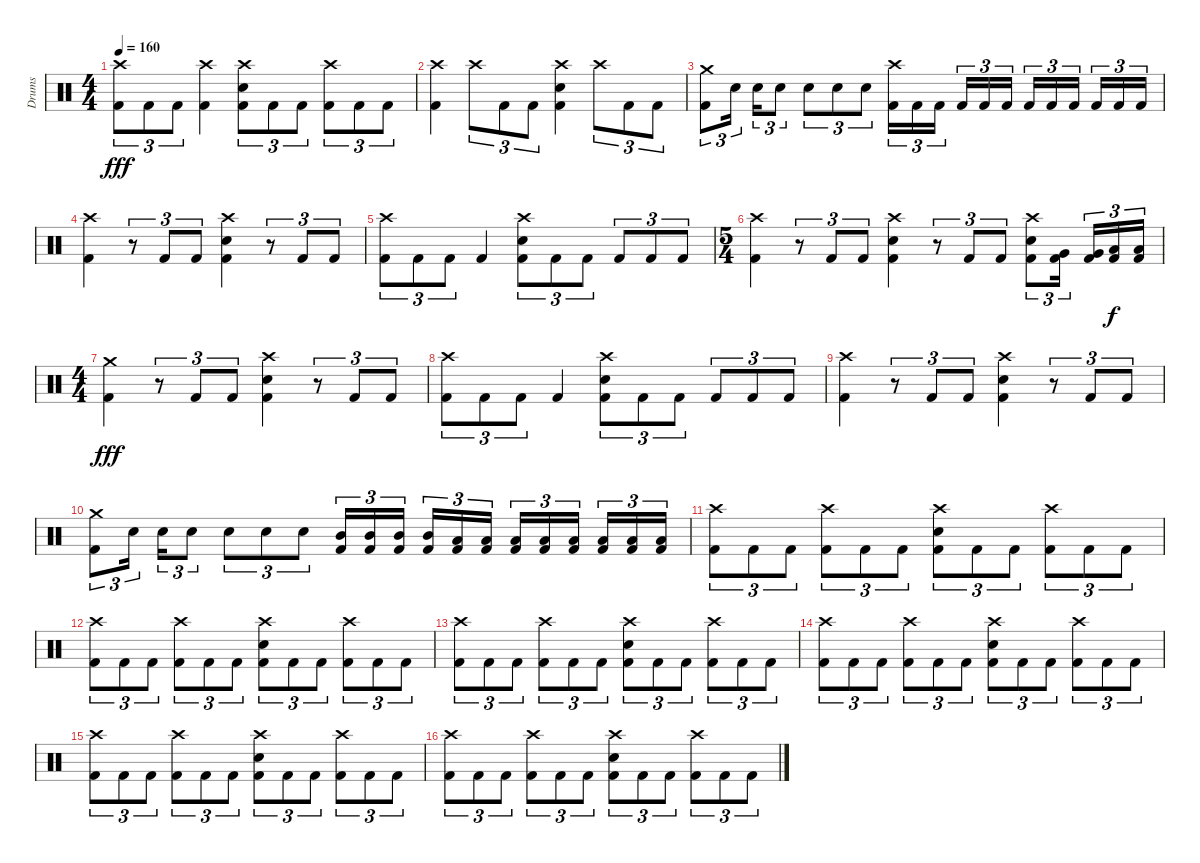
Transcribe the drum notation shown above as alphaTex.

\track ("Drums" "Drums") {instrument percussion}
\staff {score}
\articulation defaults
\ts (4 4)
\tempo 160
\clef neutral
\ks c
("Crash high (hit)" "Kick (hit) 2").8{tu (3 2) dy fff} "Kick (hit) 2".8{tu (3 2)} "Kick (hit) 2".8{tu (3 2)} ("Crash high (hit)" "Kick (hit) 2").4 ("Crash high (hit)" "Snare (hit) 2" "Kick (hit) 2").8{tu (3 2)} "Kick (hit) 2".8{tu (3 2)} "Kick (hit) 2".8{tu (3 2)} ("Crash high (hit)" "Kick (hit) 2").8{tu (3 2)} "Kick (hit) 2".8{tu (3 2)} "Kick (hit) 2".8{tu (3 2)} |
("Crash high (hit)" "Kick (hit) 2").4 "Crash high (hit)".8{tu (3 2)} "Kick (hit) 2".8{tu (3 2)} "Kick (hit) 2".8{tu (3 2)} ("Crash high (hit)" "Snare (hit) 2" "Kick (hit) 2").4 "Crash high (hit)".8{tu (3 2)} "Kick (hit) 2".8{tu (3 2)} "Kick (hit) 2".8{tu (3 2)} |
("Crash medium (hit)" "Kick (hit) 2").8{tu (3 2)} "Snare (hit) 2".16{tu (3 2) beam splitsecondary} "Snare (hit) 2".16{tu (3 2)} "Snare (hit) 2".8{tu (3 2)} "Snare (hit) 2".8{tu (3 2)} "Snare (hit) 2".8{tu (3 2)} "Snare (hit) 2".8{tu (3 2)} ("Crash high (hit)" "Kick (hit) 2").16{tu (3 2)} "Kick (hit) 2".16{tu (3 2)} "Kick (hit) 2".16{tu (3 2) beam splitsecondary} "Kick (hit) 2".16{tu (3 2)} "Kick (hit) 2".16{tu (3 2)} "Kick (hit) 2".16{tu (3 2)} "Kick (hit) 2".16{tu (3 2)} "Kick (hit) 2".16{tu (3 2)} "Kick (hit) 2".16{tu (3 2) beam splitsecondary} "Kick (hit) 2".16{tu (3 2)} "Kick (hit) 2".16{tu (3 2)} "Kick (hit) 2".16{tu (3 2)} |
("Crash high (hit)" "Kick (hit) 2").4 r.8{tu (3 2)} "Kick (hit) 2".8{tu (3 2)} "Kick (hit) 2".8{tu (3 2)} ("Crash high (hit)" "Snare (hit) 2" "Kick (hit) 2").4 r.8{tu (3 2)} "Kick (hit) 2".8{tu (3 2)} "Kick (hit) 2".8{tu (3 2)} |
("Crash high (hit)" "Kick (hit) 2").8{tu (3 2)} "Kick (hit) 2".8{tu (3 2)} "Kick (hit) 2".8{tu (3 2)} "Kick (hit) 2".4 ("Crash high (hit)" "Snare (hit) 2" "Kick (hit) 2").8{tu (3 2)} "Kick (hit) 2".8{tu (3 2)} "Kick (hit) 2".8{tu (3 2)} "Kick (hit) 2".8{tu (3 2)} "Kick (hit) 2".8{tu (3 2)} "Kick (hit) 2".8{tu (3 2)} |
\ts (5 4)
("Crash high (hit)" "Kick (hit) 2").4 r.8{tu (3 2)} "Kick (hit) 2".8{tu (3 2)} "Kick (hit) 2".8{tu (3 2)} ("Crash high (hit)" "Snare (hit) 2" "Kick (hit) 2").4 r.8{tu (3 2)} "Kick (hit) 2".8{tu (3 2)} "Kick (hit) 2".8{tu (3 2)} ("Crash high (hit)" "Snare (hit) 2" "Kick (hit) 2").8{tu (3 2)} ("Very Low Tom (hit)" "Kick (hit) 2").16{tu (3 2) beam splitsecondary} ("Very Low Tom (hit)" "Kick (hit) 2").16{tu (3 2)} ("Low Floor Tom (hit)" "Kick (hit) 2").16{tu (3 2) dy f} ("Low Floor Tom (hit)" "Kick (hit) 2").16{tu (3 2)} |
\ts (4 4)
("Crash medium (hit)" "Kick (hit) 2").4{dy fff} r.8{tu (3 2)} "Kick (hit) 2".8{tu (3 2)} "Kick (hit) 2".8{tu (3 2)} ("Crash high (hit)" "Snare (hit) 2" "Kick (hit) 2").4 r.8{tu (3 2)} "Kick (hit) 2".8{tu (3 2)} "Kick (hit) 2".8{tu (3 2)} |
("Crash high (hit)" "Kick (hit) 2").8{tu (3 2)} "Kick (hit) 2".8{tu (3 2)} "Kick (hit) 2".8{tu (3 2)} "Kick (hit) 2".4 ("Crash high (hit)" "Snare (hit) 2" "Kick (hit) 2").8{tu (3 2)} "Kick (hit) 2".8{tu (3 2)} "Kick (hit) 2".8{tu (3 2)} "Kick (hit) 2".8{tu (3 2)} "Kick (hit) 2".8{tu (3 2)} "Kick (hit) 2".8{tu (3 2)} |
("Crash high (hit)" "Kick (hit) 2").4 r.8{tu (3 2)} "Kick (hit) 2".8{tu (3 2)} "Kick (hit) 2".8{tu (3 2)} ("Crash high (hit)" "Snare (hit) 2" "Kick (hit) 2").4 r.8{tu (3 2)} "Kick (hit) 2".8{tu (3 2)} "Kick (hit) 2".8{tu (3 2)} |
("Crash medium (hit)" "Kick (hit) 2").8{tu (3 2)} "Snare (hit) 2".16{tu (3 2) beam splitsecondary} "Snare (hit) 2".16{tu (3 2)} "Snare (hit) 2".8{tu (3 2)} "Snare (hit) 2".8{tu (3 2)} "Snare (hit) 2".8{tu (3 2)} "Snare (hit) 2".8{tu (3 2)} ("Mid Tom (hit)" "Kick (hit) 2").16{tu (3 2)} ("Mid Tom (hit)" "Kick (hit) 2").16{tu (3 2)} ("Mid Tom (hit)" "Kick (hit) 2").16{tu (3 2) beam splitsecondary} ("Mid Tom (hit)" "Kick (hit) 2").16{tu (3 2)} ("Low Tom (hit)" "Kick (hit) 2").16{tu (3 2)} ("Low Tom (hit)" "Kick (hit) 2").16{tu (3 2)} ("Low Tom (hit)" "Kick (hit) 2").16{tu (3 2)} ("Low Tom (hit)" "Kick (hit) 2").16{tu (3 2)} ("Low Floor Tom (hit)" "Kick (hit) 2").16{tu (3 2) beam splitsecondary} ("Low Floor Tom (hit)" "Kick (hit) 2").16{tu (3 2)} ("Low Floor Tom (hit)" "Kick (hit) 2").16{tu (3 2)} ("Low Floor Tom (hit)" "Kick (hit) 2").16{tu (3 2)} |
("Crash high (hit)" "Kick (hit) 2").8{tu (3 2)} "Kick (hit) 2".8{tu (3 2)} "Kick (hit) 2".8{tu (3 2)} ("Crash high (hit)" "Kick (hit) 2").8{tu (3 2)} "Kick (hit) 2".8{tu (3 2)} "Kick (hit) 2".8{tu (3 2)} ("Crash high (hit)" "Snare (hit) 2" "Kick (hit) 2").8{tu (3 2)} "Kick (hit) 2".8{tu (3 2)} "Kick (hit) 2".8{tu (3 2)} ("Crash high (hit)" "Kick (hit) 2").8{tu (3 2)} "Kick (hit) 2".8{tu (3 2)} "Kick (hit) 2".8{tu (3 2)} |
("Crash high (hit)" "Kick (hit) 2").8{tu (3 2)} "Kick (hit) 2".8{tu (3 2)} "Kick (hit) 2".8{tu (3 2)} ("Crash high (hit)" "Kick (hit) 2").8{tu (3 2)} "Kick (hit) 2".8{tu (3 2)} "Kick (hit) 2".8{tu (3 2)} ("Crash high (hit)" "Snare (hit) 2" "Kick (hit) 2").8{tu (3 2)} "Kick (hit) 2".8{tu (3 2)} "Kick (hit) 2".8{tu (3 2)} ("Crash high (hit)" "Kick (hit) 2").8{tu (3 2)} "Kick (hit) 2".8{tu (3 2)} "Kick (hit) 2".8{tu (3 2)} |
("Crash high (hit)" "Kick (hit) 2").8{tu (3 2)} "Kick (hit) 2".8{tu (3 2)} "Kick (hit) 2".8{tu (3 2)} ("Crash high (hit)" "Kick (hit) 2").8{tu (3 2)} "Kick (hit) 2".8{tu (3 2)} "Kick (hit) 2".8{tu (3 2)} ("Crash high (hit)" "Snare (hit) 2" "Kick (hit) 2").8{tu (3 2)} "Kick (hit) 2".8{tu (3 2)} "Kick (hit) 2".8{tu (3 2)} ("Crash high (hit)" "Kick (hit) 2").8{tu (3 2)} "Kick (hit) 2".8{tu (3 2)} "Kick (hit) 2".8{tu (3 2)} |
("Crash high (hit)" "Kick (hit) 2").8{tu (3 2)} "Kick (hit) 2".8{tu (3 2)} "Kick (hit) 2".8{tu (3 2)} ("Crash high (hit)" "Kick (hit) 2").8{tu (3 2)} "Kick (hit) 2".8{tu (3 2)} "Kick (hit) 2".8{tu (3 2)} ("Crash high (hit)" "Snare (hit) 2" "Kick (hit) 2").8{tu (3 2)} "Kick (hit) 2".8{tu (3 2)} "Kick (hit) 2".8{tu (3 2)} ("Crash high (hit)" "Kick (hit) 2").8{tu (3 2)} "Kick (hit) 2".8{tu (3 2)} "Kick (hit) 2".8{tu (3 2)} |
("Crash high (hit)" "Kick (hit) 2").8{tu (3 2)} "Kick (hit) 2".8{tu (3 2)} "Kick (hit) 2".8{tu (3 2)} ("Crash high (hit)" "Kick (hit) 2").8{tu (3 2)} "Kick (hit) 2".8{tu (3 2)} "Kick (hit) 2".8{tu (3 2)} ("Crash high (hit)" "Snare (hit) 2" "Kick (hit) 2").8{tu (3 2)} "Kick (hit) 2".8{tu (3 2)} "Kick (hit) 2".8{tu (3 2)} ("Crash high (hit)" "Kick (hit) 2").8{tu (3 2)} "Kick (hit) 2".8{tu (3 2)} "Kick (hit) 2".8{tu (3 2)} |
("Crash high (hit)" "Kick (hit) 2").8{tu (3 2)} "Kick (hit) 2".8{tu (3 2)} "Kick (hit) 2".8{tu (3 2)} ("Crash high (hit)" "Kick (hit) 2").8{tu (3 2)} "Kick (hit) 2".8{tu (3 2)} "Kick (hit) 2".8{tu (3 2)} ("Crash high (hit)" "Snare (hit) 2" "Kick (hit) 2").8{tu (3 2)} "Kick (hit) 2".8{tu (3 2)} "Kick (hit) 2".8{tu (3 2)} ("Crash high (hit)" "Kick (hit) 2").8{tu (3 2)} "Kick (hit) 2".8{tu (3 2)} "Kick (hit) 2".8{tu (3 2)}
